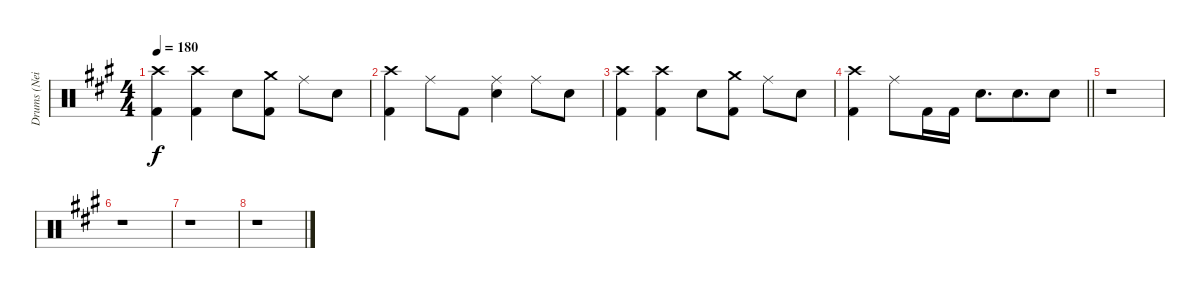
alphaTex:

\track ("Drums (Neil Sanderson)" "Drums (Nei") {instrument percussion}
\staff {score}
\articulation defaults
\ts (4 4)
\tempo 180
\clef neutral
\ks f#minor
("Crash high (hit)" "Kick (hit) 2").4{dy f} ("Crash high (hit)" "Kick (hit) 2").4 "Electric Snare (hit)".8 ("Crash medium (hit)" "Kick (hit) 2").8 "Ride (middle)".8 "Electric Snare (hit)".8 |
("Crash high (hit)" "Kick (hit) 2").4 "Ride (middle)".8 "Kick (hit) 2".8 ("Ride (middle)" "Electric Snare (hit)").4 "Ride (middle)".8 "Electric Snare (hit)".8 |
("Crash high (hit)" "Kick (hit) 2").4 ("Crash high (hit)" "Kick (hit) 2").4 "Electric Snare (hit)".8 ("Crash medium (hit)" "Kick (hit) 2").8 "Ride (middle)".8 "Electric Snare (hit)".8 |
\barLineRight lightlight
("Crash high (hit)" "Kick (hit) 2").4 "Ride (middle)".8 "Kick (hit) 2".16 "Kick (hit) 2".16 "Electric Snare (hit)".8{d} "Electric Snare (hit)".8{d beam merge} "Electric Snare (hit)".8 |
r.1 |
r.1 |
r.1 |
r.1
